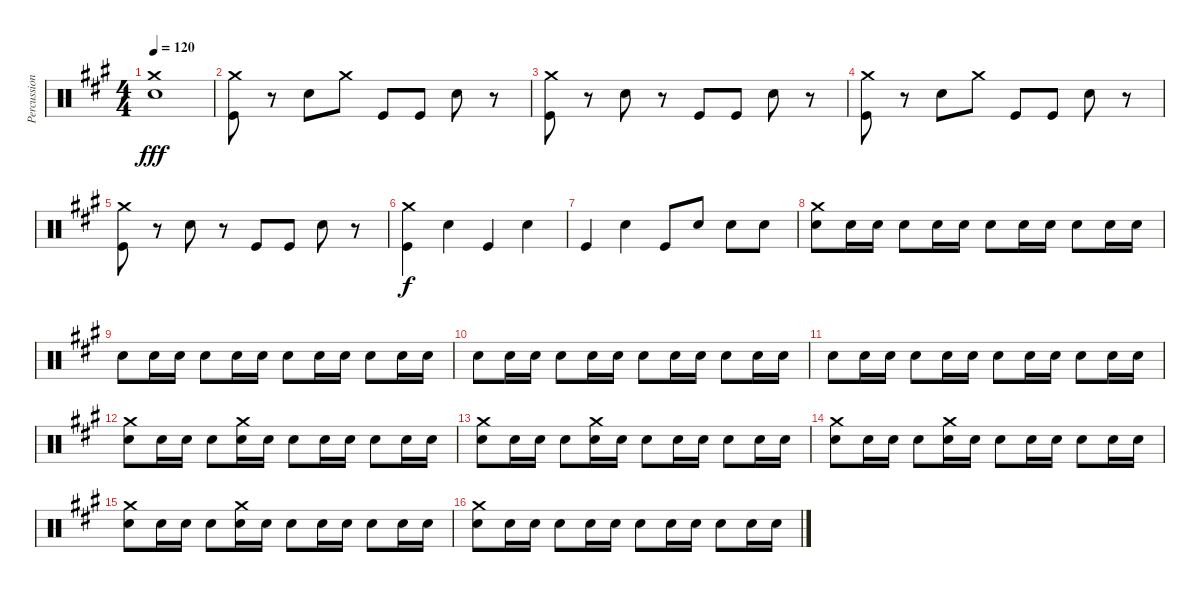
\track ("Percussion" "Percussion") {instrument percussion}
\staff {score}
\articulation defaults
\ts (4 4)
\tempo 120
\clef neutral
\ks a
("Crash medium (hit)" "Snare (hit) 2").1{dy fff} |
("Crash medium (hit)" "Kick (hit)").8 r.8 "Snare (hit) 2".8 "Crash medium (hit)".8 "Kick (hit)".8 "Kick (hit)".8 "Snare (hit) 2".8 r.8 |
("Crash medium (hit)" "Kick (hit)").8 r.8 "Snare (hit) 2".8 r.8 "Kick (hit)".8 "Kick (hit)".8 "Snare (hit) 2".8 r.8 |
("Crash medium (hit)" "Kick (hit)").8 r.8 "Snare (hit) 2".8 "Crash medium (hit)".8 "Kick (hit)".8 "Kick (hit)".8 "Snare (hit) 2".8 r.8 |
("Crash medium (hit)" "Kick (hit)").8 r.8 "Snare (hit) 2".8 r.8 "Kick (hit)".8 "Kick (hit)".8 "Snare (hit) 2".8 r.8 |
("Crash medium (hit)" "Kick (hit)").4{dy f} "Snare (hit) 2".4 "Kick (hit)".4 "Snare (hit) 2".4 |
"Kick (hit)".4 "Snare (hit) 2".4 "Kick (hit)".8 "Snare (hit) 2".8 "Snare (hit) 2".8 "Snare (hit) 2".8 |
("Crash medium (hit)" "Snare (hit) 2").8 "Snare (hit) 2".16 "Snare (hit) 2".16 "Snare (hit) 2".8 "Snare (hit) 2".16 "Snare (hit) 2".16 "Snare (hit) 2".8 "Snare (hit) 2".16 "Snare (hit) 2".16 "Snare (hit) 2".8 "Snare (hit) 2".16 "Snare (hit) 2".16 |
"Snare (hit) 2".8 "Snare (hit) 2".16 "Snare (hit) 2".16 "Snare (hit) 2".8 "Snare (hit) 2".16 "Snare (hit) 2".16 "Snare (hit) 2".8 "Snare (hit) 2".16 "Snare (hit) 2".16 "Snare (hit) 2".8 "Snare (hit) 2".16 "Snare (hit) 2".16 |
"Snare (hit) 2".8 "Snare (hit) 2".16 "Snare (hit) 2".16 "Snare (hit) 2".8 "Snare (hit) 2".16 "Snare (hit) 2".16 "Snare (hit) 2".8 "Snare (hit) 2".16 "Snare (hit) 2".16 "Snare (hit) 2".8 "Snare (hit) 2".16 "Snare (hit) 2".16 |
"Snare (hit) 2".8 "Snare (hit) 2".16 "Snare (hit) 2".16 "Snare (hit) 2".8 "Snare (hit) 2".16 "Snare (hit) 2".16 "Snare (hit) 2".8 "Snare (hit) 2".16 "Snare (hit) 2".16 "Snare (hit) 2".8 "Snare (hit) 2".16 "Snare (hit) 2".16 |
("Crash medium (hit)" "Snare (hit) 2").8 "Snare (hit) 2".16 "Snare (hit) 2".16 "Snare (hit) 2".8 ("Crash medium (hit)" "Snare (hit) 2").16 "Snare (hit) 2".16 "Snare (hit) 2".8 "Snare (hit) 2".16 "Snare (hit) 2".16 "Snare (hit) 2".8 "Snare (hit) 2".16 "Snare (hit) 2".16 |
("Crash medium (hit)" "Snare (hit) 2").8 "Snare (hit) 2".16 "Snare (hit) 2".16 "Snare (hit) 2".8 ("Crash medium (hit)" "Snare (hit) 2").16 "Snare (hit) 2".16 "Snare (hit) 2".8 "Snare (hit) 2".16 "Snare (hit) 2".16 "Snare (hit) 2".8 "Snare (hit) 2".16 "Snare (hit) 2".16 |
("Crash medium (hit)" "Snare (hit) 2").8 "Snare (hit) 2".16 "Snare (hit) 2".16 "Snare (hit) 2".8 ("Crash medium (hit)" "Snare (hit) 2").16 "Snare (hit) 2".16 "Snare (hit) 2".8 "Snare (hit) 2".16 "Snare (hit) 2".16 "Snare (hit) 2".8 "Snare (hit) 2".16 "Snare (hit) 2".16 |
("Crash medium (hit)" "Snare (hit) 2").8 "Snare (hit) 2".16 "Snare (hit) 2".16 "Snare (hit) 2".8 ("Crash medium (hit)" "Snare (hit) 2").16 "Snare (hit) 2".16 "Snare (hit) 2".8 "Snare (hit) 2".16 "Snare (hit) 2".16 "Snare (hit) 2".8 "Snare (hit) 2".16 "Snare (hit) 2".16 |
("Crash medium (hit)" "Snare (hit) 2").8 "Snare (hit) 2".16 "Snare (hit) 2".16 "Snare (hit) 2".8 "Snare (hit) 2".16 "Snare (hit) 2".16 "Snare (hit) 2".8 "Snare (hit) 2".16 "Snare (hit) 2".16 "Snare (hit) 2".8 "Snare (hit) 2".16 "Snare (hit) 2".16
